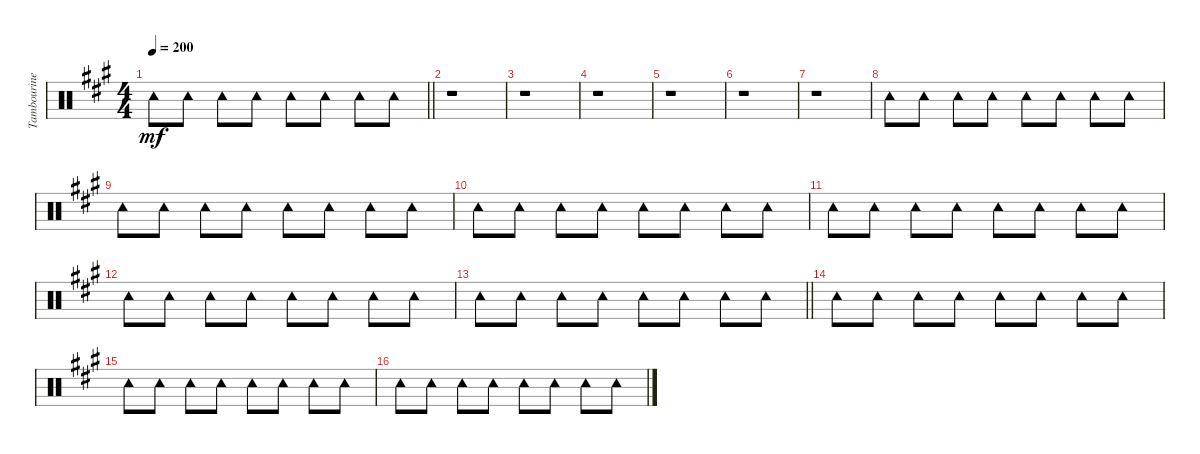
\track ("Tambourine" "Tambourine") {instrument percussion}
\staff {score}
\articulation defaults
\ts (4 4)
\tempo 200
\clef neutral
\barLineRight lightlight
\ks a "Tambourine (hit)".8{dy mf} "Tambourine (hit)".8 "Tambourine (hit)".8 "Tambourine (hit)".8 "Tambourine (hit)".8 "Tambourine (hit)".8 "Tambourine (hit)".8 "Tambourine (hit)".8
|
\section ("" "")
r.1 |
r.1 |
r.1 |
r.1 |
r.1 |
r.1 |
"Tambourine (hit)".8 "Tambourine (hit)".8 "Tambourine (hit)".8 "Tambourine (hit)".8 "Tambourine (hit)".8 "Tambourine (hit)".8 "Tambourine (hit)".8 "Tambourine (hit)".8 |
"Tambourine (hit)".8 "Tambourine (hit)".8 "Tambourine (hit)".8 "Tambourine (hit)".8 "Tambourine (hit)".8 "Tambourine (hit)".8 "Tambourine (hit)".8 "Tambourine (hit)".8 |
"Tambourine (hit)".8 "Tambourine (hit)".8 "Tambourine (hit)".8 "Tambourine (hit)".8 "Tambourine (hit)".8 "Tambourine (hit)".8 "Tambourine (hit)".8 "Tambourine (hit)".8 |
"Tambourine (hit)".8 "Tambourine (hit)".8 "Tambourine (hit)".8 "Tambourine (hit)".8 "Tambourine (hit)".8 "Tambourine (hit)".8 "Tambourine (hit)".8 "Tambourine (hit)".8 |
"Tambourine (hit)".8 "Tambourine (hit)".8 "Tambourine (hit)".8 "Tambourine (hit)".8 "Tambourine (hit)".8 "Tambourine (hit)".8 "Tambourine (hit)".8 "Tambourine (hit)".8 |
\barLineRight lightlight "Tambourine (hit)".8 "Tambourine (hit)".8 "Tambourine (hit)".8 "Tambourine (hit)".8 "Tambourine (hit)".8 "Tambourine (hit)".8 "Tambourine (hit)".8 "Tambourine (hit)".8
|
\section ("" "")
"Tambourine (hit)".8 "Tambourine (hit)".8 "Tambourine (hit)".8 "Tambourine (hit)".8 "Tambourine (hit)".8 "Tambourine (hit)".8 "Tambourine (hit)".8 "Tambourine (hit)".8 |
"Tambourine (hit)".8 "Tambourine (hit)".8 "Tambourine (hit)".8 "Tambourine (hit)".8 "Tambourine (hit)".8 "Tambourine (hit)".8 "Tambourine (hit)".8 "Tambourine (hit)".8 |
"Tambourine (hit)".8 "Tambourine (hit)".8 "Tambourine (hit)".8 "Tambourine (hit)".8 "Tambourine (hit)".8 "Tambourine (hit)".8 "Tambourine (hit)".8 "Tambourine (hit)".8
